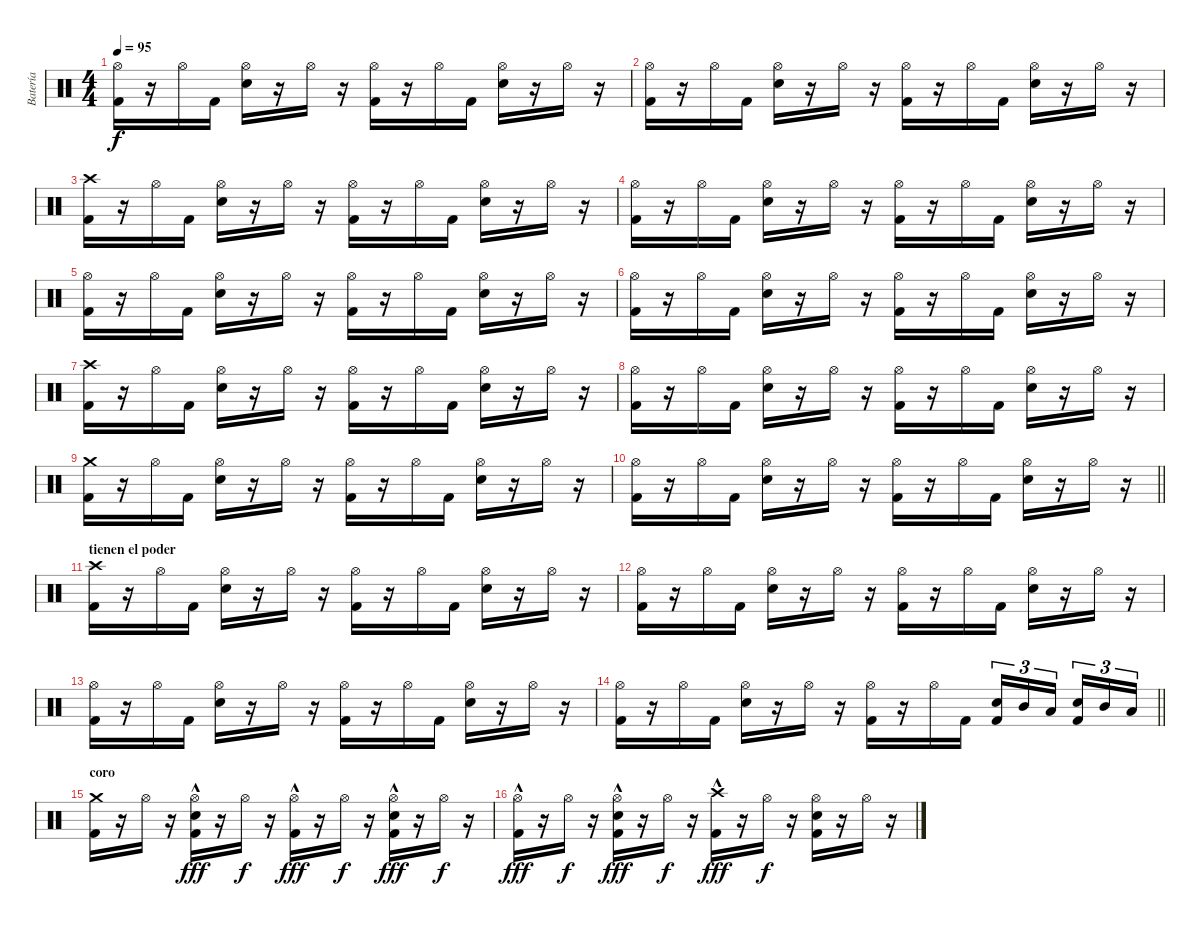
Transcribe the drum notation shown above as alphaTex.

\track ("Batería" "Batería") {instrument percussion}
\staff {score}
\articulation defaults
\ts (4 4)
\tempo 95
\clef neutral
\ks c
("Hi-Hat (open)" "Kick (hit) 2").16{dy f} r.16 "Hi-Hat (open)".16 "Kick (hit) 2".16 ("Hi-Hat (open)" "Snare (hit) 2").16 r.16 "Hi-Hat (open)".16 r.16 ("Hi-Hat (open)" "Kick (hit) 2").16 r.16 "Hi-Hat (open)".16 "Kick (hit) 2".16 ("Hi-Hat (open)" "Snare (hit) 2").16 r.16 "Hi-Hat (open)".16 r.16 |
("Hi-Hat (open)" "Kick (hit) 2").16 r.16 "Hi-Hat (open)".16 "Kick (hit) 2".16 ("Hi-Hat (open)" "Snare (hit) 2").16 r.16 "Hi-Hat (open)".16 r.16 ("Hi-Hat (open)" "Kick (hit) 2").16 r.16 "Hi-Hat (open)".16 "Kick (hit) 2".16 ("Hi-Hat (open)" "Snare (hit) 2").16 r.16 "Hi-Hat (open)".16 r.16 |
("Crash high (hit)" "Kick (hit) 2").16 r.16 "Hi-Hat (open)".16 "Kick (hit) 2".16 ("Hi-Hat (open)" "Snare (hit) 2").16 r.16 "Hi-Hat (open)".16 r.16 ("Hi-Hat (open)" "Kick (hit) 2").16 r.16 "Hi-Hat (open)".16 "Kick (hit) 2".16 ("Hi-Hat (open)" "Snare (hit) 2").16 r.16 "Hi-Hat (open)".16 r.16 |
("Hi-Hat (open)" "Kick (hit) 2").16 r.16 "Hi-Hat (open)".16 "Kick (hit) 2".16 ("Hi-Hat (open)" "Snare (hit) 2").16 r.16 "Hi-Hat (open)".16 r.16 ("Hi-Hat (open)" "Kick (hit) 2").16 r.16 "Hi-Hat (open)".16 "Kick (hit) 2".16 ("Hi-Hat (open)" "Snare (hit) 2").16 r.16 "Hi-Hat (open)".16 r.16 |
("Hi-Hat (open)" "Kick (hit) 2").16 r.16 "Hi-Hat (open)".16 "Kick (hit) 2".16 ("Hi-Hat (open)" "Snare (hit) 2").16 r.16 "Hi-Hat (open)".16 r.16 ("Hi-Hat (open)" "Kick (hit) 2").16 r.16 "Hi-Hat (open)".16 "Kick (hit) 2".16 ("Hi-Hat (open)" "Snare (hit) 2").16 r.16 "Hi-Hat (open)".16 r.16 |
("Hi-Hat (open)" "Kick (hit) 2").16 r.16 "Hi-Hat (open)".16 "Kick (hit) 2".16 ("Hi-Hat (open)" "Snare (hit) 2").16 r.16 "Hi-Hat (open)".16 r.16 ("Hi-Hat (open)" "Kick (hit) 2").16 r.16 "Hi-Hat (open)".16 "Kick (hit) 2".16 ("Hi-Hat (open)" "Snare (hit) 2").16 r.16 "Hi-Hat (open)".16 r.16 |
("Crash high (hit)" "Kick (hit) 2").16 r.16 "Hi-Hat (open)".16 "Kick (hit) 2".16 ("Hi-Hat (open)" "Snare (hit) 2").16 r.16 "Hi-Hat (open)".16 r.16 ("Hi-Hat (open)" "Kick (hit) 2").16 r.16 "Hi-Hat (open)".16 "Kick (hit) 2".16 ("Hi-Hat (open)" "Snare (hit) 2").16 r.16 "Hi-Hat (open)".16 r.16 |
("Hi-Hat (open)" "Kick (hit) 2").16 r.16 "Hi-Hat (open)".16 "Kick (hit) 2".16 ("Hi-Hat (open)" "Snare (hit) 2").16 r.16 "Hi-Hat (open)".16 r.16 ("Hi-Hat (open)" "Kick (hit) 2").16 r.16 "Hi-Hat (open)".16 "Kick (hit) 2".16 ("Hi-Hat (open)" "Snare (hit) 2").16 r.16 "Hi-Hat (open)".16 r.16 |
("Crash medium (hit)" "Kick (hit) 2").16 r.16 "Hi-Hat (open)".16 "Kick (hit) 2".16 ("Hi-Hat (open)" "Snare (hit) 2").16 r.16 "Hi-Hat (open)".16 r.16 ("Hi-Hat (open)" "Kick (hit) 2").16 r.16 "Hi-Hat (open)".16 "Kick (hit) 2".16 ("Hi-Hat (open)" "Snare (hit) 2").16 r.16 "Hi-Hat (open)".16 r.16 |
\barLineRight lightlight
("Hi-Hat (open)" "Kick (hit) 2").16 r.16 "Hi-Hat (open)".16 "Kick (hit) 2".16 ("Hi-Hat (open)" "Snare (hit) 2").16 r.16 "Hi-Hat (open)".16 r.16 ("Hi-Hat (open)" "Kick (hit) 2").16 r.16 "Hi-Hat (open)".16 "Kick (hit) 2".16 ("Hi-Hat (open)" "Snare (hit) 2").16 r.16 "Hi-Hat (open)".16 r.16 |
\section ("" "tienen el poder")
("Crash high (hit)" "Kick (hit) 2").16 r.16 "Hi-Hat (open)".16 "Kick (hit) 2".16 ("Hi-Hat (open)" "Snare (hit) 2").16 r.16 "Hi-Hat (open)".16 r.16 ("Hi-Hat (open)" "Kick (hit) 2").16 r.16 "Hi-Hat (open)".16 "Kick (hit) 2".16 ("Hi-Hat (open)" "Snare (hit) 2").16 r.16 "Hi-Hat (open)".16 r.16 |
("Hi-Hat (open)" "Kick (hit) 2").16 r.16 "Hi-Hat (open)".16 "Kick (hit) 2".16 ("Hi-Hat (open)" "Snare (hit) 2").16 r.16 "Hi-Hat (open)".16 r.16 ("Hi-Hat (open)" "Kick (hit) 2").16 r.16 "Hi-Hat (open)".16 "Kick (hit) 2".16 ("Hi-Hat (open)" "Snare (hit) 2").16 r.16 "Hi-Hat (open)".16 r.16 |
("Hi-Hat (open)" "Kick (hit) 2").16 r.16 "Hi-Hat (open)".16 "Kick (hit) 2".16 ("Hi-Hat (open)" "Snare (hit) 2").16 r.16 "Hi-Hat (open)".16 r.16 ("Hi-Hat (open)" "Kick (hit) 2").16 r.16 "Hi-Hat (open)".16 "Kick (hit) 2".16 ("Hi-Hat (open)" "Snare (hit) 2").16 r.16 "Hi-Hat (open)".16 r.16 |
\barLineRight lightlight
("Hi-Hat (open)" "Kick (hit) 2").16 r.16 "Hi-Hat (open)".16 "Kick (hit) 2".16 ("Hi-Hat (open)" "Snare (hit) 2").16 r.16 "Hi-Hat (open)".16 r.16 ("Hi-Hat (open)" "Kick (hit) 2").16 r.16 "Hi-Hat (open)".16 "Kick (hit) 2".16 ("Snare (hit) 2" "Kick (hit) 2").16{tu (3 2)} "Mid Tom (hit)".16{tu (3 2)} "Low Tom (hit)".16{tu (3 2) beam splitsecondary} ("Snare (hit) 2" "Kick (hit) 2").16{tu (3 2)} "Mid Tom (hit)".16{tu (3 2)} "Low Tom (hit)".16{tu (3 2)} |
\section ("" "coro")
("Crash medium (hit)" "Kick (hit) 2").16 r.16 "Hi-Hat (open)".16 r.16 ("Hi-Hat (open)"{hac} "Snare (hit) 2" "Kick (hit) 2").16{dy fff} r.16 "Hi-Hat (open)".16{dy f} r.16 ("Hi-Hat (open)"{hac} "Kick (hit) 2").16{dy fff} r.16 "Hi-Hat (open)".16{dy f} r.16 ("Hi-Hat (open)"{hac} "Snare (hit) 2" "Kick (hit) 2").16{dy fff} r.16 "Hi-Hat (open)".16{dy f} r.16 |
("Hi-Hat (open)"{hac} "Kick (hit) 2").16{dy fff} r.16 "Hi-Hat (open)".16{dy f} r.16 ("Hi-Hat (open)"{hac} "Snare (hit) 2" "Kick (hit) 2").16{dy fff} r.16 "Hi-Hat (open)".16{dy f} r.16 ("Crash high (hit)"{hac} "Kick (hit) 2").16{dy fff} r.16 "Hi-Hat (open)".16{dy f} r.16 ("Hi-Hat (open)" "Snare (hit) 2" "Kick (hit) 2").16 r.16 "Hi-Hat (open)".16 r.16
